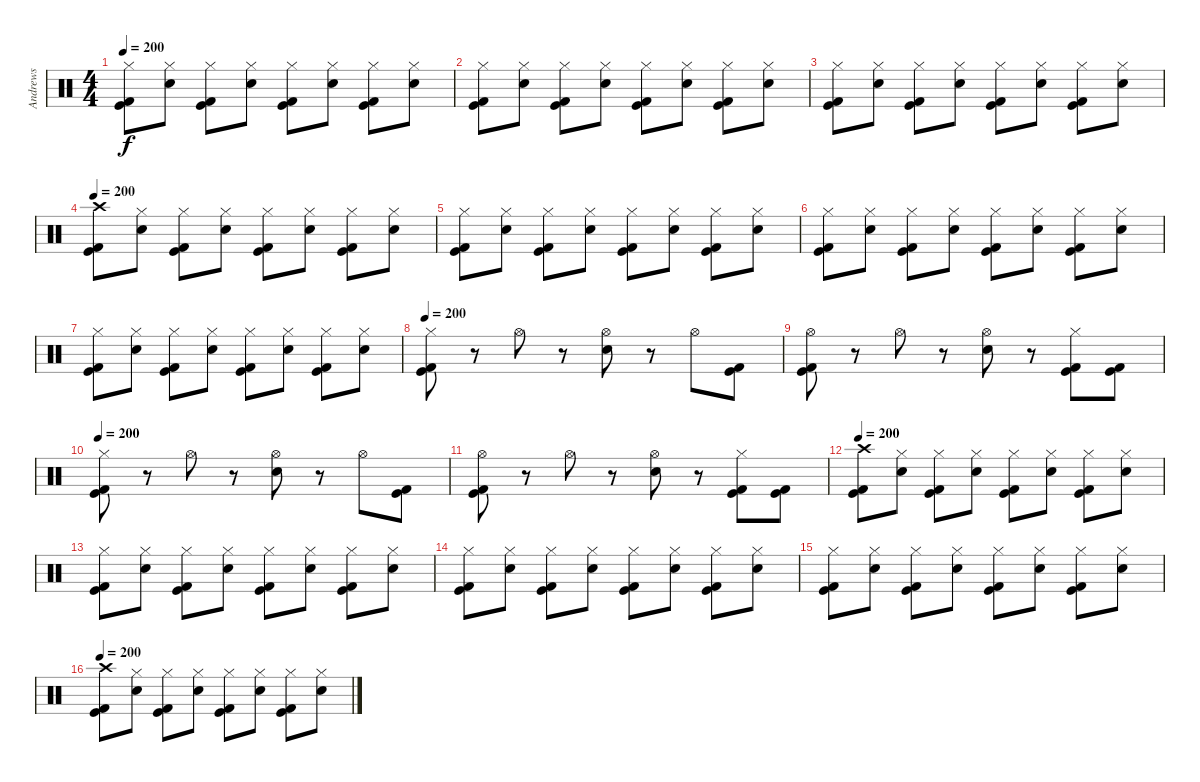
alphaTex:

\track ("Andrews" "Andrews") {instrument percussion}
\staff {score}
\articulation defaults
\ts (4 4)
\tempo 200
\clef neutral
\ks c
("Hi-Hat (closed)" "Kick (hit) 2" "Kick (hit)").8{dy f} ("Hi-Hat (closed)" "Electric Snare (hit)").8 ("Hi-Hat (closed)" "Kick (hit) 2" "Kick (hit)").8 ("Hi-Hat (closed)" "Electric Snare (hit)").8 ("Hi-Hat (closed)" "Kick (hit) 2" "Kick (hit)").8 ("Hi-Hat (closed)" "Electric Snare (hit)").8 ("Hi-Hat (closed)" "Kick (hit) 2" "Kick (hit)").8 ("Hi-Hat (closed)" "Electric Snare (hit)").8 |
("Hi-Hat (closed)" "Kick (hit) 2" "Kick (hit)").8 ("Hi-Hat (closed)" "Electric Snare (hit)").8 ("Hi-Hat (closed)" "Kick (hit) 2" "Kick (hit)").8 ("Hi-Hat (closed)" "Electric Snare (hit)").8 ("Hi-Hat (closed)" "Kick (hit) 2" "Kick (hit)").8 ("Hi-Hat (closed)" "Electric Snare (hit)").8 ("Hi-Hat (closed)" "Kick (hit) 2" "Kick (hit)").8 ("Hi-Hat (closed)" "Electric Snare (hit)").8 |
("Hi-Hat (closed)" "Kick (hit) 2" "Kick (hit)").8 ("Hi-Hat (closed)" "Electric Snare (hit)").8 ("Hi-Hat (closed)" "Kick (hit) 2" "Kick (hit)").8 ("Hi-Hat (closed)" "Electric Snare (hit)").8 ("Hi-Hat (closed)" "Kick (hit) 2" "Kick (hit)").8 ("Hi-Hat (closed)" "Electric Snare (hit)").8 ("Hi-Hat (closed)" "Kick (hit) 2" "Kick (hit)").8 ("Hi-Hat (closed)" "Electric Snare (hit)").8 |
\tempo 200
("Crash high (hit)" "Kick (hit) 2" "Kick (hit)").8 ("Hi-Hat (closed)" "Electric Snare (hit)").8 ("Hi-Hat (closed)" "Kick (hit) 2" "Kick (hit)").8 ("Hi-Hat (closed)" "Electric Snare (hit)").8 ("Hi-Hat (closed)" "Kick (hit) 2" "Kick (hit)").8 ("Hi-Hat (closed)" "Electric Snare (hit)").8 ("Hi-Hat (closed)" "Kick (hit) 2" "Kick (hit)").8 ("Hi-Hat (closed)" "Electric Snare (hit)").8 |
("Hi-Hat (closed)" "Kick (hit) 2" "Kick (hit)").8 ("Hi-Hat (closed)" "Electric Snare (hit)").8 ("Hi-Hat (closed)" "Kick (hit) 2" "Kick (hit)").8 ("Hi-Hat (closed)" "Electric Snare (hit)").8 ("Hi-Hat (closed)" "Kick (hit) 2" "Kick (hit)").8 ("Hi-Hat (closed)" "Electric Snare (hit)").8 ("Hi-Hat (closed)" "Kick (hit) 2" "Kick (hit)").8 ("Hi-Hat (closed)" "Electric Snare (hit)").8 |
("Hi-Hat (closed)" "Kick (hit) 2" "Kick (hit)").8 ("Hi-Hat (closed)" "Electric Snare (hit)").8 ("Hi-Hat (closed)" "Kick (hit) 2" "Kick (hit)").8 ("Hi-Hat (closed)" "Electric Snare (hit)").8 ("Hi-Hat (closed)" "Kick (hit) 2" "Kick (hit)").8 ("Hi-Hat (closed)" "Electric Snare (hit)").8 ("Hi-Hat (closed)" "Kick (hit) 2" "Kick (hit)").8 ("Hi-Hat (closed)" "Electric Snare (hit)").8 |
("Hi-Hat (closed)" "Kick (hit) 2" "Kick (hit)").8 ("Hi-Hat (closed)" "Electric Snare (hit)").8 ("Hi-Hat (closed)" "Kick (hit) 2" "Kick (hit)").8 ("Hi-Hat (closed)" "Electric Snare (hit)").8 ("Hi-Hat (closed)" "Kick (hit) 2" "Kick (hit)").8 ("Hi-Hat (closed)" "Electric Snare (hit)").8 ("Hi-Hat (closed)" "Kick (hit) 2" "Kick (hit)").8 ("Hi-Hat (closed)" "Electric Snare (hit)").8 |
\tempo 200
("Hi-Hat (closed)" "Kick (hit) 2" "Kick (hit)").8 r.8 "Hi-Hat (open)".8 r.8 ("Hi-Hat (open)" "Electric Snare (hit)").8 r.8 "Hi-Hat (open)".8 ("Kick (hit) 2" "Kick (hit)").8 |
("Hi-Hat (open)" "Kick (hit) 2" "Kick (hit)").8 r.8 "Hi-Hat (open)".8 r.8 ("Hi-Hat (open)" "Electric Snare (hit)").8 r.8 ("Hi-Hat (closed)" "Kick (hit) 2" "Kick (hit)").8 ("Kick (hit) 2" "Kick (hit)").8 |
\tempo 200
("Hi-Hat (closed)" "Kick (hit) 2" "Kick (hit)").8 r.8 "Hi-Hat (open)".8 r.8 ("Hi-Hat (open)" "Electric Snare (hit)").8 r.8 "Hi-Hat (open)".8 ("Kick (hit) 2" "Kick (hit)").8 |
("Hi-Hat (open)" "Kick (hit) 2" "Kick (hit)").8 r.8 "Hi-Hat (open)".8 r.8 ("Hi-Hat (open)" "Electric Snare (hit)").8 r.8 ("Hi-Hat (closed)" "Kick (hit) 2" "Kick (hit)").8 ("Kick (hit) 2" "Kick (hit)").8 |
\tempo 200
("Crash high (hit)" "Kick (hit) 2" "Kick (hit)").8 ("Hi-Hat (closed)" "Electric Snare (hit)").8 ("Hi-Hat (closed)" "Kick (hit) 2" "Kick (hit)").8 ("Hi-Hat (closed)" "Electric Snare (hit)").8 ("Hi-Hat (closed)" "Kick (hit) 2" "Kick (hit)").8 ("Hi-Hat (closed)" "Electric Snare (hit)").8 ("Hi-Hat (closed)" "Kick (hit) 2" "Kick (hit)").8 ("Hi-Hat (closed)" "Electric Snare (hit)").8 |
("Hi-Hat (closed)" "Kick (hit) 2" "Kick (hit)").8 ("Hi-Hat (closed)" "Electric Snare (hit)").8 ("Hi-Hat (closed)" "Kick (hit) 2" "Kick (hit)").8 ("Hi-Hat (closed)" "Electric Snare (hit)").8 ("Hi-Hat (closed)" "Kick (hit) 2" "Kick (hit)").8 ("Hi-Hat (closed)" "Electric Snare (hit)").8 ("Hi-Hat (closed)" "Kick (hit) 2" "Kick (hit)").8 ("Hi-Hat (closed)" "Electric Snare (hit)").8 |
("Hi-Hat (closed)" "Kick (hit) 2" "Kick (hit)").8 ("Hi-Hat (closed)" "Electric Snare (hit)").8 ("Hi-Hat (closed)" "Kick (hit) 2" "Kick (hit)").8 ("Hi-Hat (closed)" "Electric Snare (hit)").8 ("Hi-Hat (closed)" "Kick (hit) 2" "Kick (hit)").8 ("Hi-Hat (closed)" "Electric Snare (hit)").8 ("Hi-Hat (closed)" "Kick (hit) 2" "Kick (hit)").8 ("Hi-Hat (closed)" "Electric Snare (hit)").8 |
("Hi-Hat (closed)" "Kick (hit) 2" "Kick (hit)").8 ("Hi-Hat (closed)" "Electric Snare (hit)").8 ("Hi-Hat (closed)" "Kick (hit) 2" "Kick (hit)").8 ("Hi-Hat (closed)" "Electric Snare (hit)").8 ("Hi-Hat (closed)" "Kick (hit) 2" "Kick (hit)").8 ("Hi-Hat (closed)" "Electric Snare (hit)").8 ("Hi-Hat (closed)" "Kick (hit) 2" "Kick (hit)").8 ("Hi-Hat (closed)" "Electric Snare (hit)").8 |
\tempo 200
("Crash high (hit)" "Kick (hit) 2" "Kick (hit)").8 ("Hi-Hat (closed)" "Electric Snare (hit)").8 ("Hi-Hat (closed)" "Kick (hit) 2" "Kick (hit)").8 ("Hi-Hat (closed)" "Electric Snare (hit)").8 ("Hi-Hat (closed)" "Kick (hit) 2" "Kick (hit)").8 ("Hi-Hat (closed)" "Electric Snare (hit)").8 ("Hi-Hat (closed)" "Kick (hit) 2" "Kick (hit)").8 ("Hi-Hat (closed)" "Electric Snare (hit)").8
